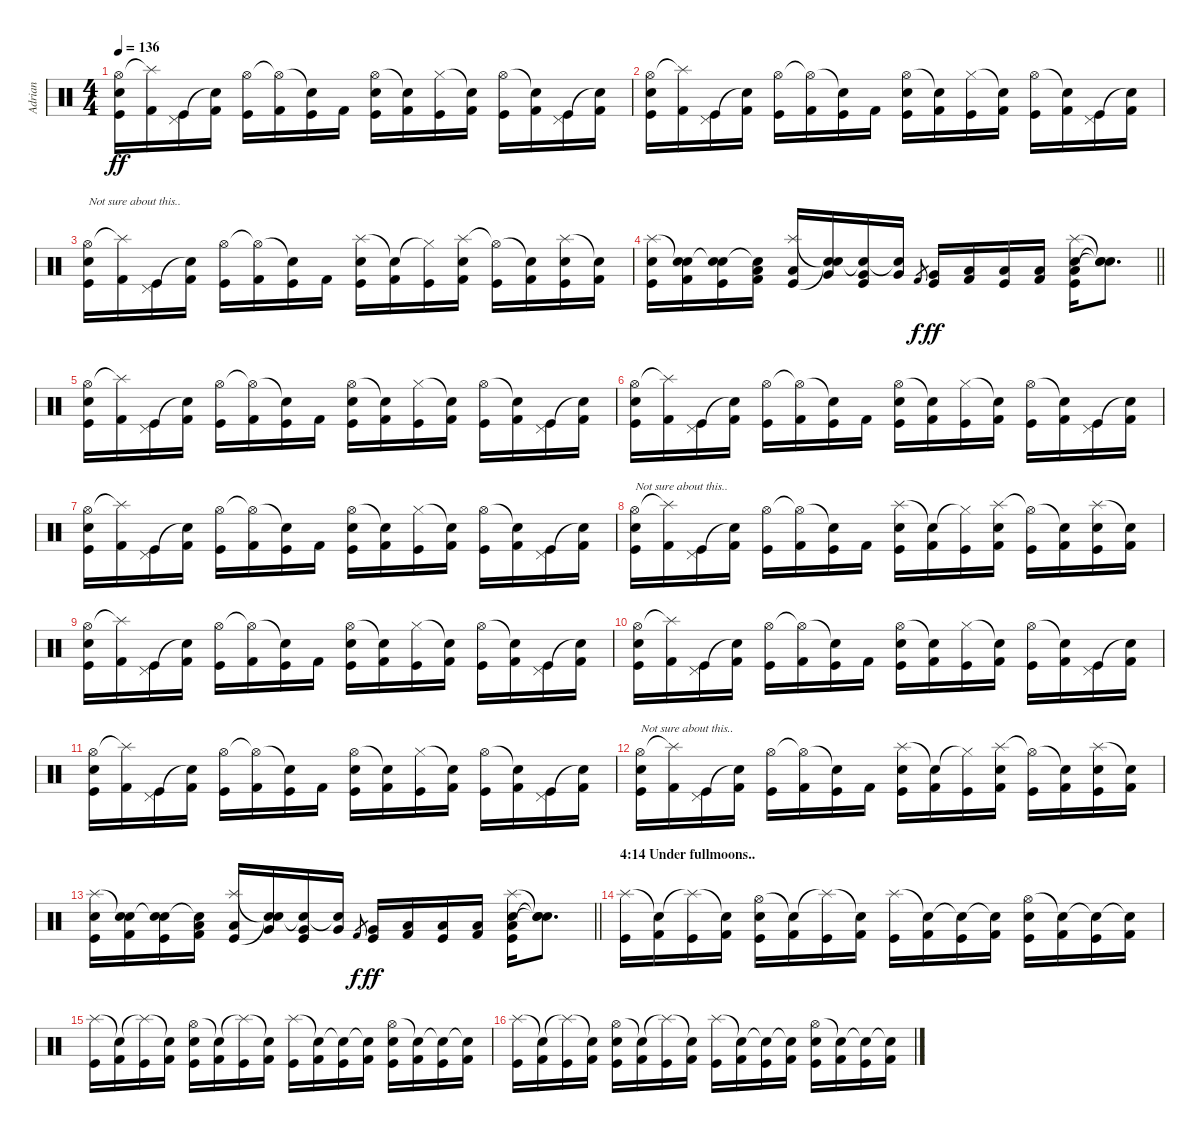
\track ("Adrian" "Adrian") {instrument percussion}
\staff {score}
\articulation defaults
\ts (4 4)
\tempo 136
\clef neutral
\ks c
("Hi-Hat (open)" "Electric Snare (hit)" "Kick (hit)").16{dy ff} ("Splash (hit)"{t} "Kick (hit) 2").16 ("Pedal Hi-Hat (hit)" "Kick (hit)").16 ("Snare (hit)"{t} "Kick (hit) 2").16 ("Hi-Hat (open)" "Kick (hit)").16 ("Hi-Hat (open)"{t} "Kick (hit) 2").16 ("Snare (hit)"{t} "Kick (hit)").16 "Kick (hit) 2".16 ("Hi-Hat (open)" "Electric Snare (hit)" "Kick (hit)").16 ("Snare (hit)"{t} "Kick (hit) 2").16 ("Hi-Hat (closed)" "Kick (hit)").16 ("Snare (hit)"{t} "Kick (hit) 2").16 ("Hi-Hat (open)" "Kick (hit)").16 ("Snare (hit)"{t} "Kick (hit) 2").16 ("Pedal Hi-Hat (hit)" "Kick (hit)").16 ("Snare (hit)"{t} "Kick (hit) 2").16 |
("Hi-Hat (open)" "Electric Snare (hit)" "Kick (hit)").16 ("Splash (hit)"{t} "Kick (hit) 2").16 ("Pedal Hi-Hat (hit)" "Kick (hit)").16 ("Snare (hit)"{t} "Kick (hit) 2").16 ("Hi-Hat (open)" "Kick (hit)").16 ("Hi-Hat (open)"{t} "Kick (hit) 2").16 ("Snare (hit)"{t} "Kick (hit)").16 "Kick (hit) 2".16 ("Hi-Hat (open)" "Electric Snare (hit)" "Kick (hit)").16 ("Snare (hit)"{t} "Kick (hit) 2").16 ("Hi-Hat (closed)" "Kick (hit)").16 ("Snare (hit)"{t} "Kick (hit) 2").16 ("Hi-Hat (open)" "Kick (hit)").16 ("Snare (hit)"{t} "Kick (hit) 2").16 ("Pedal Hi-Hat (hit)" "Kick (hit)").16 ("Snare (hit)"{t} "Kick (hit) 2").16 |
("Hi-Hat (open)" "Electric Snare (hit)" "Kick (hit)").16{txt "Not sure about this.."} ("Splash (hit)"{t} "Kick (hit) 2").16 ("Pedal Hi-Hat (hit)" "Kick (hit)").16 ("Snare (hit)"{t} "Kick (hit) 2").16 ("Hi-Hat (open)" "Kick (hit)").16 ("Hi-Hat (open)"{t} "Kick (hit) 2").16 ("Snare (hit)"{t} "Kick (hit)").16 "Kick (hit) 2".16 ("Splash (hit)" "Electric Snare (hit)" "Kick (hit)").16 ("Snare (hit)"{t} "Kick (hit) 2").16 ("Hi-Hat (closed)"{t} "Kick (hit)").16 ("Splash (hit)" "Electric Snare (hit)" "Kick (hit) 2").16 ("Hi-Hat (open)"{t} "Kick (hit)").16 ("Snare (hit)"{t} "Kick (hit) 2").16 ("Splash (hit)" "Electric Snare (hit)" "Kick (hit)").16 ("Snare (hit)"{t} "Kick (hit) 2").16 |
\barLineRight lightlight
("Splash (hit)" "Electric Snare (hit)" "Kick (hit)").16 ("Snare (hit)"{t} "Electric Snare (hit)" "Kick (hit) 2").16 ("Snare (hit)"{t} "Electric Snare (hit)" "Kick (hit)").16 ("Snare (hit)"{t} "Low Tom (hit)" "Kick (hit) 2").16 ("Splash (hit)" "Low Tom (hit)" "Kick (hit)").16 ("Snare (hit)"{t} "Very Low Tom (hit)" "Snare (hit)"{t}).16 ("Snare (hit)"{t} "Very Low Tom (hit)" "Kick (hit)").16 ("Snare (hit)"{t} "Very Low Tom (hit)").16 "Kick (hit) 2".8{gr dy f} ("Very Low Tom (hit)" "Kick (hit)").16{dy ff} ("Low Floor Tom (hit)" "Kick (hit) 2").16 ("Low Floor Tom (hit)" "Kick (hit)").16 ("Low Floor Tom (hit)" "Kick (hit) 2").16 ("Splash (hit)" "Electric Snare (hit)" "Low Floor Tom (hit)" "Kick (hit)").16 ("Snare (hit)"{t} "Snare (hit)"{t} "Snare (hit)"{t}).8{d} |
("Hi-Hat (open)" "Electric Snare (hit)" "Kick (hit)").16 ("Splash (hit)"{t} "Kick (hit) 2").16 ("Pedal Hi-Hat (hit)" "Kick (hit)").16 ("Snare (hit)"{t} "Kick (hit) 2").16 ("Hi-Hat (open)" "Kick (hit)").16 ("Hi-Hat (open)"{t} "Kick (hit) 2").16 ("Snare (hit)"{t} "Kick (hit)").16 "Kick (hit) 2".16 ("Hi-Hat (open)" "Electric Snare (hit)" "Kick (hit)").16 ("Snare (hit)"{t} "Kick (hit) 2").16 ("Hi-Hat (closed)" "Kick (hit)").16 ("Snare (hit)"{t} "Kick (hit) 2").16 ("Hi-Hat (open)" "Kick (hit)").16 ("Snare (hit)"{t} "Kick (hit) 2").16 ("Pedal Hi-Hat (hit)" "Kick (hit)").16 ("Snare (hit)"{t} "Kick (hit) 2").16 |
("Hi-Hat (open)" "Electric Snare (hit)" "Kick (hit)").16 ("Splash (hit)"{t} "Kick (hit) 2").16 ("Pedal Hi-Hat (hit)" "Kick (hit)").16 ("Snare (hit)"{t} "Kick (hit) 2").16 ("Hi-Hat (open)" "Kick (hit)").16 ("Hi-Hat (open)"{t} "Kick (hit) 2").16 ("Snare (hit)"{t} "Kick (hit)").16 "Kick (hit) 2".16 ("Hi-Hat (open)" "Electric Snare (hit)" "Kick (hit)").16 ("Snare (hit)"{t} "Kick (hit) 2").16 ("Hi-Hat (closed)" "Kick (hit)").16 ("Snare (hit)"{t} "Kick (hit) 2").16 ("Hi-Hat (open)" "Kick (hit)").16 ("Snare (hit)"{t} "Kick (hit) 2").16 ("Pedal Hi-Hat (hit)" "Kick (hit)").16 ("Snare (hit)"{t} "Kick (hit) 2").16 |
("Hi-Hat (open)" "Electric Snare (hit)" "Kick (hit)").16 ("Splash (hit)"{t} "Kick (hit) 2").16 ("Pedal Hi-Hat (hit)" "Kick (hit)").16 ("Snare (hit)"{t} "Kick (hit) 2").16 ("Hi-Hat (open)" "Kick (hit)").16 ("Hi-Hat (open)"{t} "Kick (hit) 2").16 ("Snare (hit)"{t} "Kick (hit)").16 "Kick (hit) 2".16 ("Hi-Hat (open)" "Electric Snare (hit)" "Kick (hit)").16 ("Snare (hit)"{t} "Kick (hit) 2").16 ("Hi-Hat (closed)" "Kick (hit)").16 ("Snare (hit)"{t} "Kick (hit) 2").16 ("Hi-Hat (open)" "Kick (hit)").16 ("Snare (hit)"{t} "Kick (hit) 2").16 ("Pedal Hi-Hat (hit)" "Kick (hit)").16 ("Snare (hit)"{t} "Kick (hit) 2").16 |
("Hi-Hat (open)" "Electric Snare (hit)" "Kick (hit)").16{txt "Not sure about this.."} ("Splash (hit)"{t} "Kick (hit) 2").16 ("Pedal Hi-Hat (hit)" "Kick (hit)").16 ("Snare (hit)"{t} "Kick (hit) 2").16 ("Hi-Hat (open)" "Kick (hit)").16 ("Hi-Hat (open)"{t} "Kick (hit) 2").16 ("Snare (hit)"{t} "Kick (hit)").16 "Kick (hit) 2".16 ("Splash (hit)" "Electric Snare (hit)" "Kick (hit)").16 ("Snare (hit)"{t} "Kick (hit) 2").16 ("Hi-Hat (closed)"{t} "Kick (hit)").16 ("Splash (hit)" "Electric Snare (hit)" "Kick (hit) 2").16 ("Hi-Hat (open)"{t} "Kick (hit)").16 ("Snare (hit)"{t} "Kick (hit) 2").16 ("Splash (hit)" "Electric Snare (hit)" "Kick (hit)").16 ("Snare (hit)"{t} "Kick (hit) 2").16 |
("Hi-Hat (open)" "Electric Snare (hit)" "Kick (hit)").16 ("Splash (hit)"{t} "Kick (hit) 2").16 ("Pedal Hi-Hat (hit)" "Kick (hit)").16 ("Snare (hit)"{t} "Kick (hit) 2").16 ("Hi-Hat (open)" "Kick (hit)").16 ("Hi-Hat (open)"{t} "Kick (hit) 2").16 ("Snare (hit)"{t} "Kick (hit)").16 "Kick (hit) 2".16 ("Hi-Hat (open)" "Electric Snare (hit)" "Kick (hit)").16 ("Snare (hit)"{t} "Kick (hit) 2").16 ("Hi-Hat (closed)" "Kick (hit)").16 ("Snare (hit)"{t} "Kick (hit) 2").16 ("Hi-Hat (open)" "Kick (hit)").16 ("Snare (hit)"{t} "Kick (hit) 2").16 ("Pedal Hi-Hat (hit)" "Kick (hit)").16 ("Snare (hit)"{t} "Kick (hit) 2").16 |
("Hi-Hat (open)" "Electric Snare (hit)" "Kick (hit)").16 ("Splash (hit)"{t} "Kick (hit) 2").16 ("Pedal Hi-Hat (hit)" "Kick (hit)").16 ("Snare (hit)"{t} "Kick (hit) 2").16 ("Hi-Hat (open)" "Kick (hit)").16 ("Hi-Hat (open)"{t} "Kick (hit) 2").16 ("Snare (hit)"{t} "Kick (hit)").16 "Kick (hit) 2".16 ("Hi-Hat (open)" "Electric Snare (hit)" "Kick (hit)").16 ("Snare (hit)"{t} "Kick (hit) 2").16 ("Hi-Hat (closed)" "Kick (hit)").16 ("Snare (hit)"{t} "Kick (hit) 2").16 ("Hi-Hat (open)" "Kick (hit)").16 ("Snare (hit)"{t} "Kick (hit) 2").16 ("Pedal Hi-Hat (hit)" "Kick (hit)").16 ("Snare (hit)"{t} "Kick (hit) 2").16 |
("Hi-Hat (open)" "Electric Snare (hit)" "Kick (hit)").16 ("Splash (hit)"{t} "Kick (hit) 2").16 ("Pedal Hi-Hat (hit)" "Kick (hit)").16 ("Snare (hit)"{t} "Kick (hit) 2").16 ("Hi-Hat (open)" "Kick (hit)").16 ("Hi-Hat (open)"{t} "Kick (hit) 2").16 ("Snare (hit)"{t} "Kick (hit)").16 "Kick (hit) 2".16 ("Hi-Hat (open)" "Electric Snare (hit)" "Kick (hit)").16 ("Snare (hit)"{t} "Kick (hit) 2").16 ("Hi-Hat (closed)" "Kick (hit)").16 ("Snare (hit)"{t} "Kick (hit) 2").16 ("Hi-Hat (open)" "Kick (hit)").16 ("Snare (hit)"{t} "Kick (hit) 2").16 ("Pedal Hi-Hat (hit)" "Kick (hit)").16 ("Snare (hit)"{t} "Kick (hit) 2").16 |
("Hi-Hat (open)" "Electric Snare (hit)" "Kick (hit)").16{txt "Not sure about this.."} ("Splash (hit)"{t} "Kick (hit) 2").16 ("Pedal Hi-Hat (hit)" "Kick (hit)").16 ("Snare (hit)"{t} "Kick (hit) 2").16 ("Hi-Hat (open)" "Kick (hit)").16 ("Hi-Hat (open)"{t} "Kick (hit) 2").16 ("Snare (hit)"{t} "Kick (hit)").16 "Kick (hit) 2".16 ("Splash (hit)" "Electric Snare (hit)" "Kick (hit)").16 ("Snare (hit)"{t} "Kick (hit) 2").16 ("Hi-Hat (closed)"{t} "Kick (hit)").16 ("Splash (hit)" "Electric Snare (hit)" "Kick (hit) 2").16 ("Hi-Hat (open)"{t} "Kick (hit)").16 ("Snare (hit)"{t} "Kick (hit) 2").16 ("Splash (hit)" "Electric Snare (hit)" "Kick (hit)").16 ("Snare (hit)"{t} "Kick (hit) 2").16 |
\barLineRight lightlight
("Splash (hit)" "Electric Snare (hit)" "Kick (hit)").16 ("Snare (hit)"{t} "Electric Snare (hit)" "Kick (hit) 2").16 ("Snare (hit)"{t} "Electric Snare (hit)" "Kick (hit)").16 ("Snare (hit)"{t} "Low Tom (hit)" "Kick (hit) 2").16 ("Splash (hit)" "Low Tom (hit)" "Kick (hit)").16 ("Snare (hit)"{t} "Very Low Tom (hit)" "Snare (hit)"{t}).16 ("Snare (hit)"{t} "Very Low Tom (hit)" "Kick (hit)").16 ("Snare (hit)"{t} "Very Low Tom (hit)").16 "Kick (hit) 2".8{gr dy f} ("Very Low Tom (hit)" "Kick (hit)").16{dy ff} ("Low Floor Tom (hit)" "Kick (hit) 2").16 ("Low Floor Tom (hit)" "Kick (hit)").16 ("Low Floor Tom (hit)" "Kick (hit) 2").16 ("Splash (hit)" "Electric Snare (hit)" "Low Floor Tom (hit)" "Kick (hit)").16 ("Snare (hit)"{t} "Snare (hit)"{t} "Snare (hit)"{t}).8{d} |
\section ("" "4:14 Under fullmoons..")
("Splash (hit)" "Kick (hit)").16 ("Snare (hit)"{t} "Kick (hit) 2").16 ("Splash (hit)"{t} "Kick (hit)").16 ("Snare (hit)"{t} "Kick (hit) 2").16 ("Hi-Hat (open)" "Electric Snare (hit)" "Kick (hit)").16 ("Snare (hit)"{t} "Kick (hit) 2").16 ("Splash (hit)"{t} "Kick (hit)").16 ("Snare (hit)"{t} "Kick (hit) 2").16 ("Splash (hit)" "Kick (hit)").16 ("Snare (hit)"{t} "Kick (hit) 2").16 ("Snare (hit)"{t} "Kick (hit)").16 ("Snare (hit)"{t} "Kick (hit) 2").16 ("Hi-Hat (open)" "Electric Snare (hit)" "Kick (hit)").16 ("Snare (hit)"{t} "Kick (hit) 2").16 ("Snare (hit)"{t} "Kick (hit)").16 ("Snare (hit)"{t} "Kick (hit) 2").16 |
("Splash (hit)" "Kick (hit)").16 ("Snare (hit)"{t} "Kick (hit) 2").16 ("Splash (hit)"{t} "Kick (hit)").16 ("Snare (hit)"{t} "Kick (hit) 2").16 ("Hi-Hat (open)" "Electric Snare (hit)" "Kick (hit)").16 ("Snare (hit)"{t} "Kick (hit) 2").16 ("Splash (hit)"{t} "Kick (hit)").16 ("Snare (hit)"{t} "Kick (hit) 2").16 ("Splash (hit)" "Kick (hit)").16 ("Snare (hit)"{t} "Kick (hit) 2").16 ("Snare (hit)"{t} "Kick (hit)").16 ("Snare (hit)"{t} "Kick (hit) 2").16 ("Hi-Hat (open)" "Electric Snare (hit)" "Kick (hit)").16 ("Snare (hit)"{t} "Kick (hit) 2").16 ("Snare (hit)"{t} "Kick (hit)").16 ("Snare (hit)"{t} "Kick (hit) 2").16 |
("Splash (hit)" "Kick (hit)").16 ("Snare (hit)"{t} "Kick (hit) 2").16 ("Splash (hit)"{t} "Kick (hit)").16 ("Snare (hit)"{t} "Kick (hit) 2").16 ("Hi-Hat (open)" "Electric Snare (hit)" "Kick (hit)").16 ("Snare (hit)"{t} "Kick (hit) 2").16 ("Splash (hit)"{t} "Kick (hit)").16 ("Snare (hit)"{t} "Kick (hit) 2").16 ("Splash (hit)" "Kick (hit)").16 ("Snare (hit)"{t} "Kick (hit) 2").16 ("Snare (hit)"{t} "Kick (hit)").16 ("Snare (hit)"{t} "Kick (hit) 2").16 ("Hi-Hat (open)" "Electric Snare (hit)" "Kick (hit)").16 ("Snare (hit)"{t} "Kick (hit) 2").16 ("Snare (hit)"{t} "Kick (hit)").16 ("Snare (hit)"{t} "Kick (hit) 2").16
